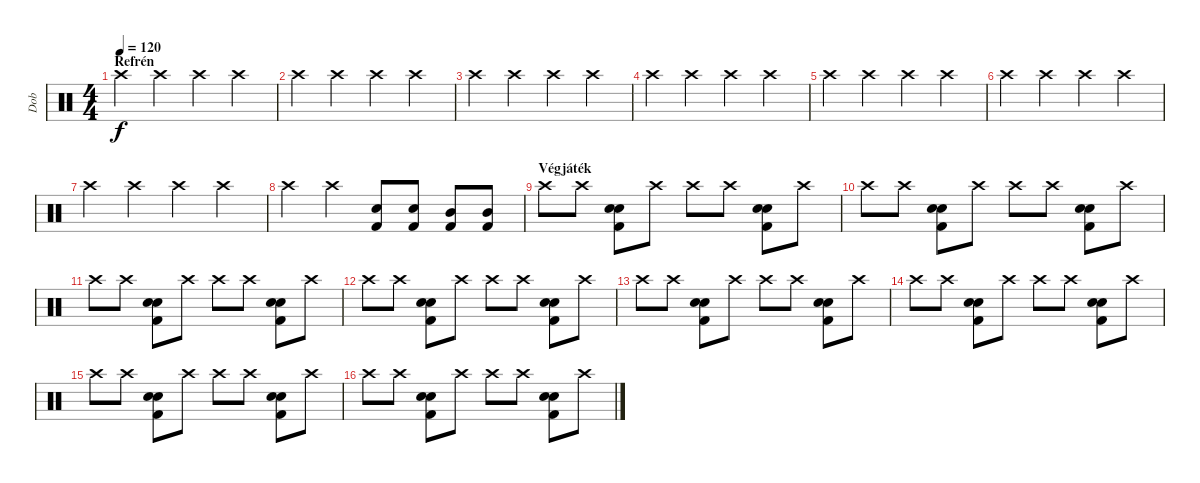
\track ("Dob" "Dob") {instrument percussion}
\staff {score}
\articulation defaults
\ts (4 4)
\section ("" "Refrén")
\tempo 120
\clef neutral
\ks c "Crash high (hit)".4{dy f} "Crash high (hit)".4 "Crash high (hit)".4 "Crash high (hit)".4
|
"Crash high (hit)".4 "Crash high (hit)".4 "Crash high (hit)".4 "Crash high (hit)".4 |
"Crash high (hit)".4 "Crash high (hit)".4 "Crash high (hit)".4 "Crash high (hit)".4 |
"Crash high (hit)".4 "Crash high (hit)".4 "Crash high (hit)".4 "Crash high (hit)".4 |
"Crash high (hit)".4 "Crash high (hit)".4 "Crash high (hit)".4 "Crash high (hit)".4 |
"Crash high (hit)".4 "Crash high (hit)".4 "Crash high (hit)".4 "Crash high (hit)".4 |
"Crash high (hit)".4 "Crash high (hit)".4 "Crash high (hit)".4 "Crash high (hit)".4 |
"Crash high (hit)".4 "Crash high (hit)".4 ("Snare (hit) 2" "Kick (hit) 2").8 ("Snare (hit) 2" "Kick (hit) 2").8 ("Mid Tom (hit)" "Kick (hit) 2").8 ("Mid Tom (hit)" "Kick (hit) 2").8 |
\section ("" "Végjáték")
"Crash high (hit)".8 "Crash high (hit)".8 ("Snare (hit) 2" "Snare (hit) 2" "Kick (hit) 2").8 "Crash high (hit)".8 "Crash high (hit)".8 "Crash high (hit)".8 ("Snare (hit) 2" "Snare (hit) 2" "Kick (hit) 2").8 "Crash high (hit)".8 |
"Crash high (hit)".8 "Crash high (hit)".8 ("Snare (hit) 2" "Snare (hit) 2" "Kick (hit) 2").8 "Crash high (hit)".8 "Crash high (hit)".8 "Crash high (hit)".8 ("Snare (hit) 2" "Snare (hit) 2" "Kick (hit) 2").8 "Crash high (hit)".8 |
"Crash high (hit)".8 "Crash high (hit)".8 ("Snare (hit) 2" "Snare (hit) 2" "Kick (hit) 2").8 "Crash high (hit)".8 "Crash high (hit)".8 "Crash high (hit)".8 ("Snare (hit) 2" "Snare (hit) 2" "Kick (hit) 2").8 "Crash high (hit)".8 |
"Crash high (hit)".8 "Crash high (hit)".8 ("Snare (hit) 2" "Snare (hit) 2" "Kick (hit) 2").8 "Crash high (hit)".8 "Crash high (hit)".8 "Crash high (hit)".8 ("Snare (hit) 2" "Snare (hit) 2" "Kick (hit) 2").8 "Crash high (hit)".8 |
"Crash high (hit)".8{volume 11} "Crash high (hit)".8 ("Snare (hit) 2" "Snare (hit) 2" "Kick (hit) 2").8 "Crash high (hit)".8 "Crash high (hit)".8 "Crash high (hit)".8 ("Snare (hit) 2" "Snare (hit) 2" "Kick (hit) 2").8 "Crash high (hit)".8 |
"Crash high (hit)".8{volume 9} "Crash high (hit)".8 ("Snare (hit) 2" "Snare (hit) 2" "Kick (hit) 2").8 "Crash high (hit)".8 "Crash high (hit)".8 "Crash high (hit)".8 ("Snare (hit) 2" "Snare (hit) 2" "Kick (hit) 2").8 "Crash high (hit)".8 |
"Crash high (hit)".8{volume 7} "Crash high (hit)".8 ("Snare (hit) 2" "Snare (hit) 2" "Kick (hit) 2").8 "Crash high (hit)".8 "Crash high (hit)".8 "Crash high (hit)".8 ("Snare (hit) 2" "Snare (hit) 2" "Kick (hit) 2").8 "Crash high (hit)".8 |
"Crash high (hit)".8{volume 5} "Crash high (hit)".8 ("Snare (hit) 2" "Snare (hit) 2" "Kick (hit) 2").8 "Crash high (hit)".8 "Crash high (hit)".8 "Crash high (hit)".8 ("Snare (hit) 2" "Snare (hit) 2" "Kick (hit) 2").8 "Crash high (hit)".8
